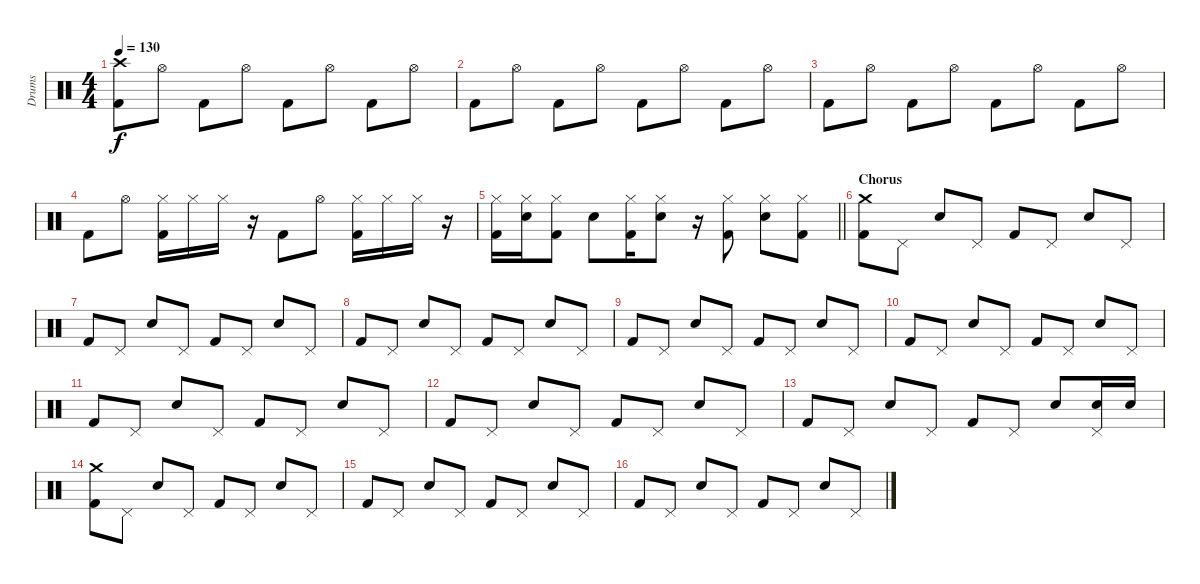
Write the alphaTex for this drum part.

\track ("Drums" "Drums") {instrument percussion}
\staff {score}
\articulation defaults
\ts (4 4)
\tempo 130
\clef neutral
\ks c
("Kick (hit) 2" "Crash high (hit)").8{dy f} "Hi-Hat (open)".8 "Kick (hit) 2".8 "Hi-Hat (open)".8 "Kick (hit) 2".8 "Hi-Hat (open)".8 "Kick (hit) 2".8 "Hi-Hat (open)".8 |
"Kick (hit) 2".8 "Hi-Hat (open)".8 "Kick (hit) 2".8 "Hi-Hat (open)".8 "Kick (hit) 2".8 "Hi-Hat (open)".8 "Kick (hit) 2".8 "Hi-Hat (open)".8 |
"Kick (hit) 2".8 "Hi-Hat (open)".8 "Kick (hit) 2".8 "Hi-Hat (open)".8 "Kick (hit) 2".8 "Hi-Hat (open)".8 "Kick (hit) 2".8 "Hi-Hat (open)".8 |
"Kick (hit) 2".8 "Hi-Hat (open)".8 ("Kick (hit) 2" "Hi-Hat (closed)").16 "Hi-Hat (closed)".16 "Hi-Hat (closed)".16 r.16 "Kick (hit) 2".8 "Hi-Hat (open)".8 ("Kick (hit) 2" "Hi-Hat (closed)").16 "Hi-Hat (closed)".16 "Hi-Hat (closed)".16 r.16 |
\barLineRight lightlight
("Kick (hit) 2" "Hi-Hat (closed)").16 ("Electric Snare (hit)" "Hi-Hat (closed)").16 ("Kick (hit) 2" "Hi-Hat (closed)").8 "Electric Snare (hit)".8 ("Kick (hit) 2" "Hi-Hat (closed)").16 ("Electric Snare (hit)" "Hi-Hat (closed)").8 r.16 ("Kick (hit) 2" "Hi-Hat (closed)").8 ("Electric Snare (hit)" "Hi-Hat (closed)").8 ("Kick (hit) 2" "Hi-Hat (closed)").8 |
\section ("" "Chorus")
("Kick (hit) 2" "Crash medium (hit)").8 "Pedal Hi-Hat (hit)".8 "Electric Snare (hit)".8 "Pedal Hi-Hat (hit)".8 "Kick (hit) 2".8 "Pedal Hi-Hat (hit)".8 "Electric Snare (hit)".8 "Pedal Hi-Hat (hit)".8 |
"Kick (hit) 2".8 "Pedal Hi-Hat (hit)".8 "Electric Snare (hit)".8 "Pedal Hi-Hat (hit)".8 "Kick (hit) 2".8 "Pedal Hi-Hat (hit)".8 "Electric Snare (hit)".8 "Pedal Hi-Hat (hit)".8 |
"Kick (hit) 2".8 "Pedal Hi-Hat (hit)".8 "Electric Snare (hit)".8 "Pedal Hi-Hat (hit)".8 "Kick (hit) 2".8 "Pedal Hi-Hat (hit)".8 "Electric Snare (hit)".8 "Pedal Hi-Hat (hit)".8 |
"Kick (hit) 2".8 "Pedal Hi-Hat (hit)".8 "Electric Snare (hit)".8 "Pedal Hi-Hat (hit)".8 "Kick (hit) 2".8 "Pedal Hi-Hat (hit)".8 "Electric Snare (hit)".8 "Pedal Hi-Hat (hit)".8 |
"Kick (hit) 2".8 "Pedal Hi-Hat (hit)".8 "Electric Snare (hit)".8 "Pedal Hi-Hat (hit)".8 "Kick (hit) 2".8 "Pedal Hi-Hat (hit)".8 "Electric Snare (hit)".8 "Pedal Hi-Hat (hit)".8 |
"Kick (hit) 2".8 "Pedal Hi-Hat (hit)".8 "Electric Snare (hit)".8 "Pedal Hi-Hat (hit)".8 "Kick (hit) 2".8 "Pedal Hi-Hat (hit)".8 "Electric Snare (hit)".8 "Pedal Hi-Hat (hit)".8 |
"Kick (hit) 2".8 "Pedal Hi-Hat (hit)".8 "Electric Snare (hit)".8 "Pedal Hi-Hat (hit)".8 "Kick (hit) 2".8 "Pedal Hi-Hat (hit)".8 "Electric Snare (hit)".8 "Pedal Hi-Hat (hit)".8 |
"Kick (hit) 2".8 "Pedal Hi-Hat (hit)".8 "Electric Snare (hit)".8 "Pedal Hi-Hat (hit)".8 "Kick (hit) 2".8 "Pedal Hi-Hat (hit)".8 "Electric Snare (hit)".8 ("Electric Snare (hit)" "Pedal Hi-Hat (hit)").16 "Electric Snare (hit)".16 |
("Kick (hit) 2" "Crash medium (hit)").8 "Pedal Hi-Hat (hit)".8 "Electric Snare (hit)".8 "Pedal Hi-Hat (hit)".8 "Kick (hit) 2".8 "Pedal Hi-Hat (hit)".8 "Electric Snare (hit)".8 "Pedal Hi-Hat (hit)".8 |
"Kick (hit) 2".8 "Pedal Hi-Hat (hit)".8 "Electric Snare (hit)".8 "Pedal Hi-Hat (hit)".8 "Kick (hit) 2".8 "Pedal Hi-Hat (hit)".8 "Electric Snare (hit)".8 "Pedal Hi-Hat (hit)".8 |
"Kick (hit) 2".8 "Pedal Hi-Hat (hit)".8 "Electric Snare (hit)".8 "Pedal Hi-Hat (hit)".8 "Kick (hit) 2".8 "Pedal Hi-Hat (hit)".8 "Electric Snare (hit)".8 "Pedal Hi-Hat (hit)".8
